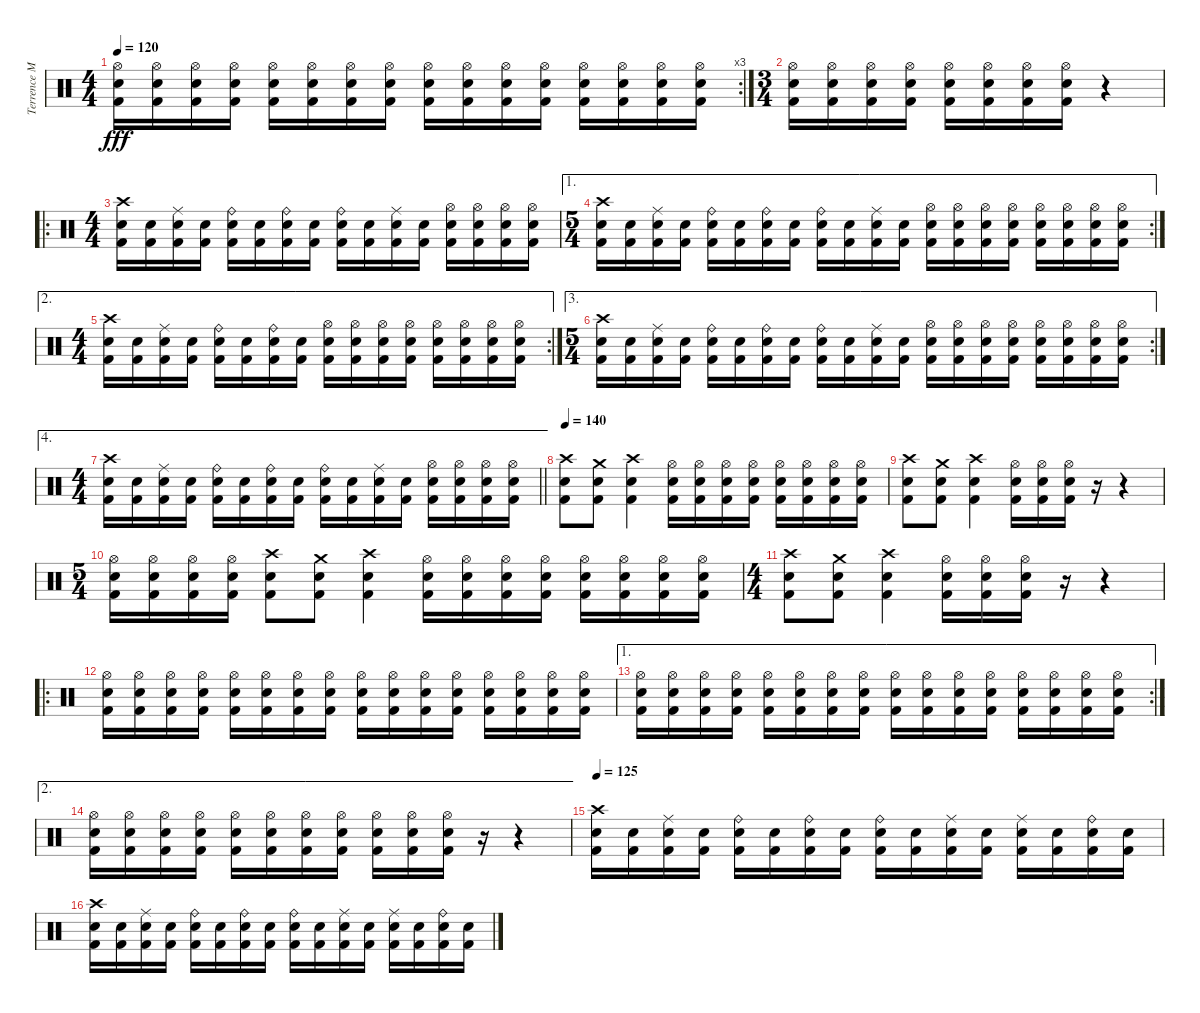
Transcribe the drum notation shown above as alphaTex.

\track ("Terrence Manauis" "Terrence M") {instrument percussion}
\staff {score}
\articulation defaults
\rc 3
\ts (4 4)
\tempo 120
\clef neutral
\ks c
("Hi-Hat (open)" "Snare (hit) 2" "Kick (hit) 2").16{dy fff} ("Hi-Hat (open)" "Snare (hit) 2" "Kick (hit) 2").16 ("Hi-Hat (open)" "Snare (hit) 2" "Kick (hit) 2").16 ("Hi-Hat (open)" "Snare (hit) 2" "Kick (hit) 2").16 ("Hi-Hat (open)" "Snare (hit) 2" "Kick (hit) 2").16 ("Hi-Hat (open)" "Snare (hit) 2" "Kick (hit) 2").16 ("Hi-Hat (open)" "Snare (hit) 2" "Kick (hit) 2").16 ("Hi-Hat (open)" "Snare (hit) 2" "Kick (hit) 2").16 ("Hi-Hat (open)" "Snare (hit) 2" "Kick (hit) 2").16 ("Hi-Hat (open)" "Snare (hit) 2" "Kick (hit) 2").16 ("Hi-Hat (open)" "Snare (hit) 2" "Kick (hit) 2").16 ("Hi-Hat (open)" "Snare (hit) 2" "Kick (hit) 2").16 ("Hi-Hat (open)" "Snare (hit) 2" "Kick (hit) 2").16 ("Hi-Hat (open)" "Snare (hit) 2" "Kick (hit) 2").16 ("Hi-Hat (open)" "Snare (hit) 2" "Kick (hit) 2").16 ("Hi-Hat (open)" "Snare (hit) 2" "Kick (hit) 2").16 |
\ts (3 4)
("Hi-Hat (open)" "Snare (hit) 2" "Kick (hit) 2").16 ("Hi-Hat (open)" "Snare (hit) 2" "Kick (hit) 2").16 ("Hi-Hat (open)" "Snare (hit) 2" "Kick (hit) 2").16 ("Hi-Hat (open)" "Snare (hit) 2" "Kick (hit) 2").16 ("Hi-Hat (open)" "Snare (hit) 2" "Kick (hit) 2").16 ("Hi-Hat (open)" "Snare (hit) 2" "Kick (hit) 2").16 ("Hi-Hat (open)" "Snare (hit) 2" "Kick (hit) 2").16 ("Hi-Hat (open)" "Snare (hit) 2" "Kick (hit) 2").16 r.4 |
\ro
\ts (4 4)
("Crash high (hit)" "Snare (hit) 2" "Kick (hit) 2").16 ("Snare (hit) 2" "Kick (hit) 2").16 ("Ride (middle)" "Snare (hit) 2" "Kick (hit) 2").16 ("Snare (hit) 2" "Kick (hit) 2").16 ("Ride (bell)" "Snare (hit) 2" "Kick (hit) 2").16 ("Snare (hit) 2" "Kick (hit) 2").16 ("Ride (bell)" "Snare (hit) 2" "Kick (hit) 2").16 ("Snare (hit) 2" "Kick (hit) 2").16 ("Ride (bell)" "Snare (hit) 2" "Kick (hit) 2").16 ("Snare (hit) 2" "Kick (hit) 2").16 ("Ride (middle)" "Snare (hit) 2" "Kick (hit) 2").16 ("Snare (hit) 2" "Kick (hit) 2").16 ("Hi-Hat (open)" "Snare (hit) 2" "Kick (hit) 2").16 ("Hi-Hat (open)" "Snare (hit) 2" "Kick (hit) 2").16 ("Hi-Hat (open)" "Snare (hit) 2" "Kick (hit) 2").16 ("Hi-Hat (open)" "Snare (hit) 2" "Kick (hit) 2").16 |
\ae 1
\rc 2
\ts (5 4)
("Crash high (hit)" "Snare (hit) 2" "Kick (hit) 2").16 ("Snare (hit) 2" "Kick (hit) 2").16 ("Ride (middle)" "Snare (hit) 2" "Kick (hit) 2").16 ("Snare (hit) 2" "Kick (hit) 2").16 ("Ride (bell)" "Snare (hit) 2" "Kick (hit) 2").16 ("Snare (hit) 2" "Kick (hit) 2").16 ("Ride (bell)" "Snare (hit) 2" "Kick (hit) 2").16 ("Snare (hit) 2" "Kick (hit) 2").16 ("Ride (bell)" "Snare (hit) 2" "Kick (hit) 2").16 ("Snare (hit) 2" "Kick (hit) 2").16 ("Ride (middle)" "Snare (hit) 2" "Kick (hit) 2").16 ("Snare (hit) 2" "Kick (hit) 2").16 ("Hi-Hat (open)" "Snare (hit) 2" "Kick (hit) 2").16 ("Hi-Hat (open)" "Snare (hit) 2" "Kick (hit) 2").16 ("Hi-Hat (open)" "Snare (hit) 2" "Kick (hit) 2").16 ("Hi-Hat (open)" "Snare (hit) 2" "Kick (hit) 2").16 ("Hi-Hat (open)" "Snare (hit) 2" "Kick (hit) 2").16 ("Hi-Hat (open)" "Snare (hit) 2" "Kick (hit) 2").16 ("Hi-Hat (open)" "Snare (hit) 2" "Kick (hit) 2").16 ("Hi-Hat (open)" "Snare (hit) 2" "Kick (hit) 2").16 |
\ae 2
\rc 2
\ts (4 4)
("Crash high (hit)" "Snare (hit) 2" "Kick (hit) 2").16 ("Snare (hit) 2" "Kick (hit) 2").16 ("Ride (middle)" "Snare (hit) 2" "Kick (hit) 2").16 ("Snare (hit) 2" "Kick (hit) 2").16 ("Ride (bell)" "Snare (hit) 2" "Kick (hit) 2").16 ("Snare (hit) 2" "Kick (hit) 2").16 ("Ride (bell)" "Snare (hit) 2" "Kick (hit) 2").16 ("Snare (hit) 2" "Kick (hit) 2").16 ("Hi-Hat (open)" "Snare (hit) 2" "Kick (hit) 2").16 ("Hi-Hat (open)" "Snare (hit) 2" "Kick (hit) 2").16 ("Hi-Hat (open)" "Snare (hit) 2" "Kick (hit) 2").16 ("Hi-Hat (open)" "Snare (hit) 2" "Kick (hit) 2").16 ("Hi-Hat (open)" "Snare (hit) 2" "Kick (hit) 2").16 ("Hi-Hat (open)" "Snare (hit) 2" "Kick (hit) 2").16 ("Hi-Hat (open)" "Snare (hit) 2" "Kick (hit) 2").16 ("Hi-Hat (open)" "Snare (hit) 2" "Kick (hit) 2").16 |
\ae 3
\rc 2
\ts (5 4)
("Crash high (hit)" "Snare (hit) 2" "Kick (hit) 2").16 ("Snare (hit) 2" "Kick (hit) 2").16 ("Ride (middle)" "Snare (hit) 2" "Kick (hit) 2").16 ("Snare (hit) 2" "Kick (hit) 2").16 ("Ride (bell)" "Snare (hit) 2" "Kick (hit) 2").16 ("Snare (hit) 2" "Kick (hit) 2").16 ("Ride (bell)" "Snare (hit) 2" "Kick (hit) 2").16 ("Snare (hit) 2" "Kick (hit) 2").16 ("Ride (bell)" "Snare (hit) 2" "Kick (hit) 2").16 ("Snare (hit) 2" "Kick (hit) 2").16 ("Ride (middle)" "Snare (hit) 2" "Kick (hit) 2").16 ("Snare (hit) 2" "Kick (hit) 2").16 ("Hi-Hat (open)" "Snare (hit) 2" "Kick (hit) 2").16 ("Hi-Hat (open)" "Snare (hit) 2" "Kick (hit) 2").16 ("Hi-Hat (open)" "Snare (hit) 2" "Kick (hit) 2").16 ("Hi-Hat (open)" "Snare (hit) 2" "Kick (hit) 2").16 ("Hi-Hat (open)" "Snare (hit) 2" "Kick (hit) 2").16 ("Hi-Hat (open)" "Snare (hit) 2" "Kick (hit) 2").16 ("Hi-Hat (open)" "Snare (hit) 2" "Kick (hit) 2").16 ("Hi-Hat (open)" "Snare (hit) 2" "Kick (hit) 2").16 |
\ae 4
\ts (4 4)
\barLineRight lightlight
("Crash high (hit)" "Snare (hit) 2" "Kick (hit) 2").16 ("Snare (hit) 2" "Kick (hit) 2").16 ("Ride (middle)" "Snare (hit) 2" "Kick (hit) 2").16 ("Snare (hit) 2" "Kick (hit) 2").16 ("Ride (bell)" "Snare (hit) 2" "Kick (hit) 2").16 ("Snare (hit) 2" "Kick (hit) 2").16 ("Ride (bell)" "Snare (hit) 2" "Kick (hit) 2").16 ("Snare (hit) 2" "Kick (hit) 2").16 ("Ride (bell)" "Snare (hit) 2" "Kick (hit) 2").16 ("Snare (hit) 2" "Kick (hit) 2").16 ("Ride (middle)" "Snare (hit) 2" "Kick (hit) 2").16 ("Snare (hit) 2" "Kick (hit) 2").16 ("Hi-Hat (open)" "Snare (hit) 2" "Kick (hit) 2").16 ("Hi-Hat (open)" "Snare (hit) 2" "Kick (hit) 2").16 ("Hi-Hat (open)" "Snare (hit) 2" "Kick (hit) 2").16 ("Hi-Hat (open)" "Snare (hit) 2" "Kick (hit) 2").16 |
\tempo 140
("Crash high (hit)" "Snare (hit) 2" "Kick (hit) 2").8 ("Crash medium (hit)" "Snare (hit) 2" "Kick (hit) 2").8 ("Crash high (hit)" "Snare (hit) 2" "Kick (hit) 2").4 ("Hi-Hat (open)" "Snare (hit) 2" "Kick (hit) 2").16 ("Hi-Hat (open)" "Snare (hit) 2" "Kick (hit) 2").16 ("Hi-Hat (open)" "Snare (hit) 2" "Kick (hit) 2").16 ("Hi-Hat (open)" "Snare (hit) 2" "Kick (hit) 2").16 ("Hi-Hat (open)" "Snare (hit) 2" "Kick (hit) 2").16 ("Hi-Hat (open)" "Snare (hit) 2" "Kick (hit) 2").16 ("Hi-Hat (open)" "Snare (hit) 2" "Kick (hit) 2").16 ("Hi-Hat (open)" "Snare (hit) 2" "Kick (hit) 2").16 |
("Crash high (hit)" "Snare (hit) 2" "Kick (hit) 2").8 ("Crash medium (hit)" "Snare (hit) 2" "Kick (hit) 2").8 ("Crash high (hit)" "Snare (hit) 2" "Kick (hit) 2").4 ("Hi-Hat (open)" "Snare (hit) 2" "Kick (hit) 2").16 ("Hi-Hat (open)" "Snare (hit) 2" "Kick (hit) 2").16 ("Hi-Hat (open)" "Snare (hit) 2" "Kick (hit) 2").16 r.16 r.4 |
\ts (5 4)
("Hi-Hat (open)" "Snare (hit) 2" "Kick (hit) 2").16 ("Hi-Hat (open)" "Snare (hit) 2" "Kick (hit) 2").16 ("Hi-Hat (open)" "Snare (hit) 2" "Kick (hit) 2").16 ("Hi-Hat (open)" "Snare (hit) 2" "Kick (hit) 2").16 ("Crash high (hit)" "Snare (hit) 2" "Kick (hit) 2").8 ("Crash medium (hit)" "Snare (hit) 2" "Kick (hit) 2").8 ("Crash high (hit)" "Snare (hit) 2" "Kick (hit) 2").4 ("Hi-Hat (open)" "Snare (hit) 2" "Kick (hit) 2").16 ("Hi-Hat (open)" "Snare (hit) 2" "Kick (hit) 2").16 ("Hi-Hat (open)" "Snare (hit) 2" "Kick (hit) 2").16 ("Hi-Hat (open)" "Snare (hit) 2" "Kick (hit) 2").16 ("Hi-Hat (open)" "Snare (hit) 2" "Kick (hit) 2").16 ("Hi-Hat (open)" "Snare (hit) 2" "Kick (hit) 2").16 ("Hi-Hat (open)" "Snare (hit) 2" "Kick (hit) 2").16 ("Hi-Hat (open)" "Snare (hit) 2" "Kick (hit) 2").16 |
\ts (4 4)
("Crash high (hit)" "Snare (hit) 2" "Kick (hit) 2").8 ("Crash medium (hit)" "Snare (hit) 2" "Kick (hit) 2").8 ("Crash high (hit)" "Snare (hit) 2" "Kick (hit) 2").4 ("Hi-Hat (open)" "Snare (hit) 2" "Kick (hit) 2").16 ("Hi-Hat (open)" "Snare (hit) 2" "Kick (hit) 2").16 ("Hi-Hat (open)" "Snare (hit) 2" "Kick (hit) 2").16 r.16 r.4 |
\ro
("Hi-Hat (open)" "Snare (hit) 2" "Kick (hit) 2").16 ("Hi-Hat (open)" "Snare (hit) 2" "Kick (hit) 2").16 ("Hi-Hat (open)" "Snare (hit) 2" "Kick (hit) 2").16 ("Hi-Hat (open)" "Snare (hit) 2" "Kick (hit) 2").16 ("Hi-Hat (open)" "Snare (hit) 2" "Kick (hit) 2").16 ("Hi-Hat (open)" "Snare (hit) 2" "Kick (hit) 2").16 ("Hi-Hat (open)" "Snare (hit) 2" "Kick (hit) 2").16 ("Hi-Hat (open)" "Snare (hit) 2" "Kick (hit) 2").16 ("Hi-Hat (open)" "Snare (hit) 2" "Kick (hit) 2").16 ("Hi-Hat (open)" "Snare (hit) 2" "Kick (hit) 2").16 ("Hi-Hat (open)" "Snare (hit) 2" "Kick (hit) 2").16 ("Hi-Hat (open)" "Snare (hit) 2" "Kick (hit) 2").16 ("Hi-Hat (open)" "Snare (hit) 2" "Kick (hit) 2").16 ("Hi-Hat (open)" "Snare (hit) 2" "Kick (hit) 2").16 ("Hi-Hat (open)" "Snare (hit) 2" "Kick (hit) 2").16 ("Hi-Hat (open)" "Snare (hit) 2" "Kick (hit) 2").16 |
\ae 1
\rc 2
("Hi-Hat (open)" "Snare (hit) 2" "Kick (hit) 2").16 ("Hi-Hat (open)" "Snare (hit) 2" "Kick (hit) 2").16 ("Hi-Hat (open)" "Snare (hit) 2" "Kick (hit) 2").16 ("Hi-Hat (open)" "Snare (hit) 2" "Kick (hit) 2").16 ("Hi-Hat (open)" "Snare (hit) 2" "Kick (hit) 2").16 ("Hi-Hat (open)" "Snare (hit) 2" "Kick (hit) 2").16 ("Hi-Hat (open)" "Snare (hit) 2" "Kick (hit) 2").16 ("Hi-Hat (open)" "Snare (hit) 2" "Kick (hit) 2").16 ("Hi-Hat (open)" "Snare (hit) 2" "Kick (hit) 2").16 ("Hi-Hat (open)" "Snare (hit) 2" "Kick (hit) 2").16 ("Hi-Hat (open)" "Snare (hit) 2" "Kick (hit) 2").16 ("Hi-Hat (open)" "Snare (hit) 2" "Kick (hit) 2").16 ("Hi-Hat (open)" "Snare (hit) 2" "Kick (hit) 2").16 ("Hi-Hat (open)" "Snare (hit) 2" "Kick (hit) 2").16 ("Hi-Hat (open)" "Snare (hit) 2" "Kick (hit) 2").16 ("Hi-Hat (open)" "Snare (hit) 2" "Kick (hit) 2").16 |
\ae 2
("Hi-Hat (open)" "Snare (hit) 2" "Kick (hit) 2").16 ("Hi-Hat (open)" "Snare (hit) 2" "Kick (hit) 2").16 ("Hi-Hat (open)" "Snare (hit) 2" "Kick (hit) 2").16 ("Hi-Hat (open)" "Snare (hit) 2" "Kick (hit) 2").16 ("Hi-Hat (open)" "Snare (hit) 2" "Kick (hit) 2").16 ("Hi-Hat (open)" "Snare (hit) 2" "Kick (hit) 2").16 ("Hi-Hat (open)" "Snare (hit) 2" "Kick (hit) 2").16 ("Hi-Hat (open)" "Snare (hit) 2" "Kick (hit) 2").16 ("Hi-Hat (open)" "Snare (hit) 2" "Kick (hit) 2").16 ("Hi-Hat (open)" "Snare (hit) 2" "Kick (hit) 2").16 ("Hi-Hat (open)" "Snare (hit) 2" "Kick (hit) 2").16 r.16 r.4 |
\tempo 125
("Crash high (hit)" "Snare (hit) 2" "Kick (hit) 2").16 ("Snare (hit) 2" "Kick (hit) 2").16 ("Ride (middle)" "Snare (hit) 2" "Kick (hit) 2").16 ("Snare (hit) 2" "Kick (hit) 2").16 ("Ride (bell)" "Snare (hit) 2" "Kick (hit) 2").16 ("Snare (hit) 2" "Kick (hit) 2").16 ("Ride (bell)" "Snare (hit) 2" "Kick (hit) 2").16 ("Snare (hit) 2" "Kick (hit) 2").16 ("Ride (bell)" "Snare (hit) 2" "Kick (hit) 2").16 ("Snare (hit) 2" "Kick (hit) 2").16 ("Ride (middle)" "Snare (hit) 2" "Kick (hit) 2").16 ("Snare (hit) 2" "Kick (hit) 2").16 ("Ride (middle)" "Snare (hit) 2" "Kick (hit) 2").16 ("Snare (hit) 2" "Kick (hit) 2").16 ("Ride (bell)" "Snare (hit) 2" "Kick (hit) 2").16 ("Snare (hit) 2" "Kick (hit) 2").16 |
("Crash high (hit)" "Snare (hit) 2" "Kick (hit) 2").16 ("Snare (hit) 2" "Kick (hit) 2").16 ("Ride (middle)" "Snare (hit) 2" "Kick (hit) 2").16 ("Snare (hit) 2" "Kick (hit) 2").16 ("Ride (bell)" "Snare (hit) 2" "Kick (hit) 2").16 ("Snare (hit) 2" "Kick (hit) 2").16 ("Ride (bell)" "Snare (hit) 2" "Kick (hit) 2").16 ("Snare (hit) 2" "Kick (hit) 2").16 ("Ride (bell)" "Snare (hit) 2" "Kick (hit) 2").16 ("Snare (hit) 2" "Kick (hit) 2").16 ("Ride (middle)" "Snare (hit) 2" "Kick (hit) 2").16 ("Snare (hit) 2" "Kick (hit) 2").16 ("Ride (middle)" "Snare (hit) 2" "Kick (hit) 2").16 ("Snare (hit) 2" "Kick (hit) 2").16 ("Ride (bell)" "Snare (hit) 2" "Kick (hit) 2").16 ("Snare (hit) 2" "Kick (hit) 2").16
